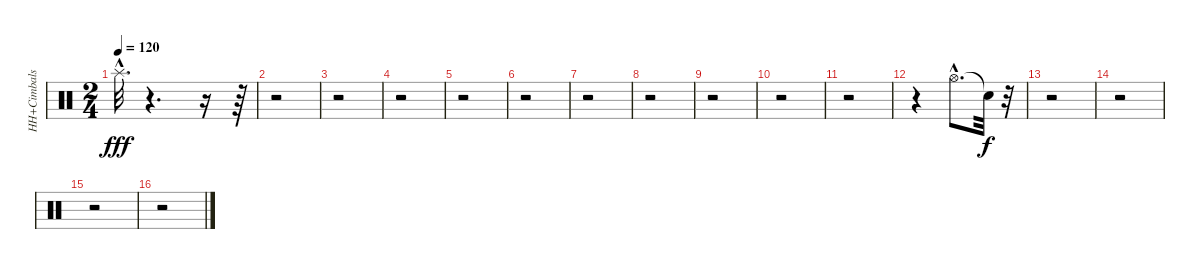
\track ("HH+Cimbals" "HH+Cimbals") {instrument percussion}
\staff {score}
\articulation defaults
\ts (2 4)
\tempo 120
\clef neutral
\ks c "Splash (hit)"{hac}.32{d dy fff}
r.4{d} r.16 r.64 |
r.2 |
r.2 |
r.2 |
r.2 |
r.2 |
r.2 |
r.2 |
r.2 |
r.2 |
r.2 |
r.4 "Hi-Hat (open)"{hac}.8{d} "Snare (hit)"{t}.32{dy f} r.32 |
r.2 |
r.2 |
r.2 |
r.2
